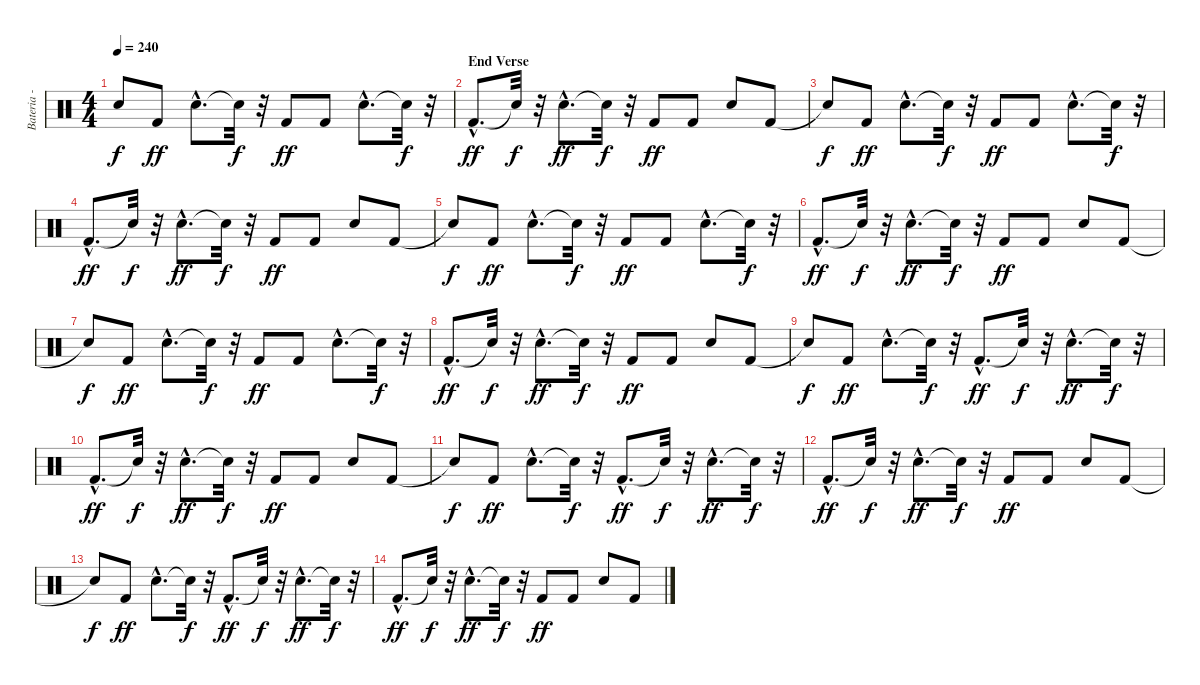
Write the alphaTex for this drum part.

\track ("Bateria - Larzon" "Bateria - ") {instrument percussion}
\staff {score}
\articulation defaults
\ts (4 4)
\tempo 240
\clef neutral
\ks c "Snare (hit)"{t}.8{dy f} "Kick (hit) 2".8{dy ff} "Electric Snare (hit)"{hac}.8{d} "Snare (hit)"{t}.32{dy f}
r.32 "Kick (hit) 2".8{dy ff} "Kick (hit) 2".8 "Electric Snare (hit)"{hac}.8{d} "Snare (hit)"{t}.32{dy f} r.32 |
\section ("" "End Verse")
"Kick (hit) 2"{hac}.8{d dy ff} "Snare (hit)"{t}.32{dy f} r.32 "Electric Snare (hit)"{hac}.8{d dy ff} "Snare (hit)"{t}.32{dy f} r.32 "Kick (hit) 2".8{dy ff} "Kick (hit) 2".8 "Electric Snare (hit)".8 "Kick (hit) 2".8 |
"Snare (hit)"{t}.8{dy f} "Kick (hit) 2".8{dy ff} "Electric Snare (hit)"{hac}.8{d} "Snare (hit)"{t}.32{dy f} r.32 "Kick (hit) 2".8{dy ff} "Kick (hit) 2".8 "Electric Snare (hit)"{hac}.8{d} "Snare (hit)"{t}.32{dy f} r.32 |
"Kick (hit) 2"{hac}.8{d dy ff} "Snare (hit)"{t}.32{dy f} r.32 "Electric Snare (hit)"{hac}.8{d dy ff} "Snare (hit)"{t}.32{dy f} r.32 "Kick (hit) 2".8{dy ff} "Kick (hit) 2".8 "Electric Snare (hit)".8 "Kick (hit) 2".8 |
"Snare (hit)"{t}.8{dy f} "Kick (hit) 2".8{dy ff} "Electric Snare (hit)"{hac}.8{d} "Snare (hit)"{t}.32{dy f} r.32 "Kick (hit) 2".8{dy ff} "Kick (hit) 2".8 "Electric Snare (hit)"{hac}.8{d} "Snare (hit)"{t}.32{dy f} r.32 |
"Kick (hit) 2"{hac}.8{d dy ff} "Snare (hit)"{t}.32{dy f} r.32 "Electric Snare (hit)"{hac}.8{d dy ff} "Snare (hit)"{t}.32{dy f} r.32 "Kick (hit) 2".8{dy ff} "Kick (hit) 2".8 "Electric Snare (hit)".8 "Kick (hit) 2".8 |
"Snare (hit)"{t}.8{dy f} "Kick (hit) 2".8{dy ff} "Electric Snare (hit)"{hac}.8{d} "Snare (hit)"{t}.32{dy f} r.32 "Kick (hit) 2".8{dy ff} "Kick (hit) 2".8 "Electric Snare (hit)"{hac}.8{d} "Snare (hit)"{t}.32{dy f} r.32 |
"Kick (hit) 2"{hac}.8{d dy ff} "Snare (hit)"{t}.32{dy f} r.32 "Electric Snare (hit)"{hac}.8{d dy ff} "Snare (hit)"{t}.32{dy f} r.32 "Kick (hit) 2".8{dy ff} "Kick (hit) 2".8 "Electric Snare (hit)".8 "Kick (hit) 2".8 |
"Snare (hit)"{t}.8{dy f} "Kick (hit) 2".8{dy ff} "Electric Snare (hit)"{hac}.8{d} "Snare (hit)"{t}.32{dy f} r.32 "Kick (hit) 2"{hac}.8{d dy ff} "Snare (hit)"{t}.32{dy f} r.32 "Electric Snare (hit)"{hac}.8{d dy ff} "Snare (hit)"{t}.32{dy f} r.32 |
"Kick (hit) 2"{hac}.8{d dy ff} "Snare (hit)"{t}.32{dy f} r.32 "Electric Snare (hit)"{hac}.8{d dy ff} "Snare (hit)"{t}.32{dy f} r.32 "Kick (hit) 2".8{dy ff} "Kick (hit) 2".8 "Electric Snare (hit)".8 "Kick (hit) 2".8 |
"Snare (hit)"{t}.8{dy f} "Kick (hit) 2".8{dy ff} "Electric Snare (hit)"{hac}.8{d} "Snare (hit)"{t}.32{dy f} r.32 "Kick (hit) 2"{hac}.8{d dy ff} "Snare (hit)"{t}.32{dy f} r.32 "Electric Snare (hit)"{hac}.8{d dy ff} "Snare (hit)"{t}.32{dy f} r.32 |
"Kick (hit) 2"{hac}.8{d dy ff} "Snare (hit)"{t}.32{dy f} r.32 "Electric Snare (hit)"{hac}.8{d dy ff} "Snare (hit)"{t}.32{dy f} r.32 "Kick (hit) 2".8{dy ff} "Kick (hit) 2".8 "Electric Snare (hit)".8 "Kick (hit) 2".8 |
"Snare (hit)"{t}.8{dy f} "Kick (hit) 2".8{dy ff} "Electric Snare (hit)"{hac}.8{d} "Snare (hit)"{t}.32{dy f} r.32 "Kick (hit) 2"{hac}.8{d dy ff} "Snare (hit)"{t}.32{dy f} r.32 "Electric Snare (hit)"{hac}.8{d dy ff} "Snare (hit)"{t}.32{dy f} r.32 |
"Kick (hit) 2"{hac}.8{d dy ff} "Snare (hit)"{t}.32{dy f} r.32 "Electric Snare (hit)"{hac}.8{d dy ff} "Snare (hit)"{t}.32{dy f} r.32 "Kick (hit) 2".8{dy ff} "Kick (hit) 2".8 "Electric Snare (hit)".8 "Kick (hit) 2".8
